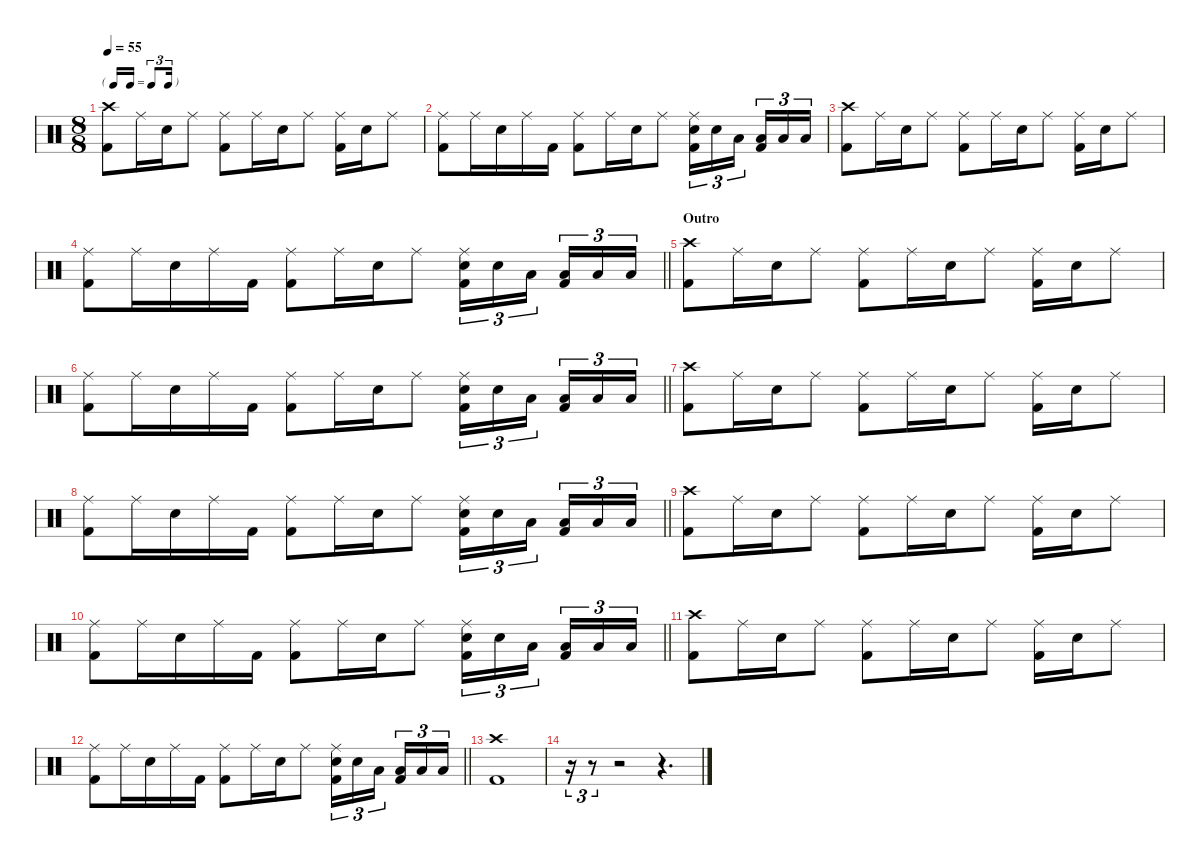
\defaultSystemsLayout 4
\hideDynamics
\bracketExtendMode nobrackets
\singleTrackTrackNamePolicy hidden
\multiTrackTrackNamePolicy hidden
\otherSystemsTrackNameOrientation horizontal
\track ("Phil Selway(drums)" "drm.") {instrument percussion}
\staff {score}
\articulation defaults
\ts (8 8)
\tf triplet16th
\tempo 55
\clef neutral
\ks c
("Crash high (hit)" "Kick (hit) 2").8{dy f beam Down} "Ride (middle)".16{beam Down} "Snare (hit) 2".16{beam Down} "Ride (middle)".8{beam Down} ("Ride (middle)" "Kick (hit) 2").8{beam Down} "Ride (middle)".16{beam Down} "Snare (hit) 2".16{beam Down} "Ride (middle)".8{beam Down} ("Ride (middle)" "Kick (hit) 2").16{beam Down} "Snare (hit) 2".16{beam Down} "Ride (middle)".8{beam Down} |
("Ride (middle)" "Kick (hit) 2").8{beam Down} "Ride (middle)".16{beam Down} "Snare (hit) 2".16{beam Down} "Ride (middle)".16{beam Down} "Kick (hit) 2".16{beam Down} ("Ride (middle)" "Kick (hit) 2").8{beam Down} "Ride (middle)".16{beam Down} "Snare (hit) 2".16{beam Down} "Ride (middle)".8{beam Down} ("Ride (middle)" "Snare (hit) 2" "Kick (hit) 2").16{tu (3 2) beam Down} "Snare (hit) 2".16{tu (3 2) beam Down} "Low Tom (hit)".16{tu (3 2) beam Down} ("Low Tom (hit)" "Kick (hit) 2").16{tu (3 2) beam Up} "Low Floor Tom (hit)".16{tu (3 2) beam Up} "Low Floor Tom (hit)".16{tu (3 2) beam Up} |
("Crash high (hit)" "Kick (hit) 2").8{beam Down} "Ride (middle)".16{beam Down} "Snare (hit) 2".16{beam Down} "Ride (middle)".8{beam Down} ("Ride (middle)" "Kick (hit) 2").8{beam Down} "Ride (middle)".16{beam Down} "Snare (hit) 2".16{beam Down} "Ride (middle)".8{beam Down} ("Ride (middle)" "Kick (hit) 2").16{beam Down} "Snare (hit) 2".16{beam Down} "Ride (middle)".8{beam Down} |
\barLineRight lightlight
("Ride (middle)" "Kick (hit) 2").8{beam Down} "Ride (middle)".16{beam Down} "Snare (hit) 2".16{beam Down} "Ride (middle)".16{beam Down} "Kick (hit) 2".16{beam Down} ("Ride (middle)" "Kick (hit) 2").8{beam Down} "Ride (middle)".16{beam Down} "Snare (hit) 2".16{beam Down} "Ride (middle)".8{beam Down} ("Ride (middle)" "Snare (hit) 2" "Kick (hit) 2").16{tu (3 2) beam Down} "Snare (hit) 2".16{tu (3 2) beam Down} "Low Tom (hit)".16{tu (3 2) beam Down} ("Low Tom (hit)" "Kick (hit) 2").16{tu (3 2) beam Up} "Low Floor Tom (hit)".16{tu (3 2) beam Up} "Low Floor Tom (hit)".16{tu (3 2) beam Up} |
\section ("" "Outro")
("Crash high (hit)" "Kick (hit) 2").8{beam Down} "Ride (middle)".16{beam Down} "Snare (hit) 2".16{beam Down} "Ride (middle)".8{beam Down} ("Ride (middle)" "Kick (hit) 2").8{beam Down} "Ride (middle)".16{beam Down} "Snare (hit) 2".16{beam Down} "Ride (middle)".8{beam Down} ("Ride (middle)" "Kick (hit) 2").16{beam Down} "Snare (hit) 2".16{beam Down} "Ride (middle)".8{beam Down} |
\barLineRight lightlight
("Ride (middle)" "Kick (hit) 2").8{beam Down} "Ride (middle)".16{beam Down} "Snare (hit) 2".16{beam Down} "Ride (middle)".16{beam Down} "Kick (hit) 2".16{beam Down} ("Ride (middle)" "Kick (hit) 2").8{beam Down} "Ride (middle)".16{beam Down} "Snare (hit) 2".16{beam Down} "Ride (middle)".8{beam Down} ("Ride (middle)" "Snare (hit) 2" "Kick (hit) 2").16{tu (3 2) beam Down} "Snare (hit) 2".16{tu (3 2) beam Down} "Low Tom (hit)".16{tu (3 2) beam Down} ("Low Tom (hit)" "Kick (hit) 2").16{tu (3 2) beam Up} "Low Floor Tom (hit)".16{tu (3 2) beam Up} "Low Floor Tom (hit)".16{tu (3 2) beam Up} |
("Crash high (hit)" "Kick (hit) 2").8{beam Down} "Ride (middle)".16{beam Down} "Snare (hit) 2".16{beam Down} "Ride (middle)".8{beam Down} ("Ride (middle)" "Kick (hit) 2").8{beam Down} "Ride (middle)".16{beam Down} "Snare (hit) 2".16{beam Down} "Ride (middle)".8{beam Down} ("Ride (middle)" "Kick (hit) 2").16{beam Down} "Snare (hit) 2".16{beam Down} "Ride (middle)".8{beam Down} |
\barLineRight lightlight
("Ride (middle)" "Kick (hit) 2").8{beam Down} "Ride (middle)".16{beam Down} "Snare (hit) 2".16{beam Down} "Ride (middle)".16{beam Down} "Kick (hit) 2".16{beam Down} ("Ride (middle)" "Kick (hit) 2").8{beam Down} "Ride (middle)".16{beam Down} "Snare (hit) 2".16{beam Down} "Ride (middle)".8{beam Down} ("Ride (middle)" "Snare (hit) 2" "Kick (hit) 2").16{tu (3 2) beam Down} "Snare (hit) 2".16{tu (3 2) beam Down} "Low Tom (hit)".16{tu (3 2) beam Down} ("Low Tom (hit)" "Kick (hit) 2").16{tu (3 2) beam Up} "Low Floor Tom (hit)".16{tu (3 2) beam Up} "Low Floor Tom (hit)".16{tu (3 2) beam Up} |
("Crash high (hit)" "Kick (hit) 2").8{beam Down} "Ride (middle)".16{beam Down} "Snare (hit) 2".16{beam Down} "Ride (middle)".8{beam Down} ("Ride (middle)" "Kick (hit) 2").8{beam Down} "Ride (middle)".16{beam Down} "Snare (hit) 2".16{beam Down} "Ride (middle)".8{beam Down} ("Ride (middle)" "Kick (hit) 2").16{beam Down} "Snare (hit) 2".16{beam Down} "Ride (middle)".8{beam Down} |
\barLineRight lightlight
("Ride (middle)" "Kick (hit) 2").8{beam Down} "Ride (middle)".16{beam Down} "Snare (hit) 2".16{beam Down} "Ride (middle)".16{beam Down} "Kick (hit) 2".16{beam Down} ("Ride (middle)" "Kick (hit) 2").8{beam Down} "Ride (middle)".16{beam Down} "Snare (hit) 2".16{beam Down} "Ride (middle)".8{beam Down} ("Ride (middle)" "Snare (hit) 2" "Kick (hit) 2").16{tu (3 2) beam Down} "Snare (hit) 2".16{tu (3 2) beam Down} "Low Tom (hit)".16{tu (3 2) beam Down} ("Low Tom (hit)" "Kick (hit) 2").16{tu (3 2) beam Up} "Low Floor Tom (hit)".16{tu (3 2) beam Up} "Low Floor Tom (hit)".16{tu (3 2) beam Up} |
("Crash high (hit)" "Kick (hit) 2").8{beam Down} "Ride (middle)".16{beam Down} "Snare (hit) 2".16{beam Down} "Ride (middle)".8{beam Down} ("Ride (middle)" "Kick (hit) 2").8{beam Down} "Ride (middle)".16{beam Down} "Snare (hit) 2".16{beam Down} "Ride (middle)".8{beam Down} ("Ride (middle)" "Kick (hit) 2").16{beam Down} "Snare (hit) 2".16{beam Down} "Ride (middle)".8{beam Down} |
\barLineRight lightlight
("Ride (middle)" "Kick (hit) 2").8{beam Down} "Ride (middle)".16{beam Down} "Snare (hit) 2".16{beam Down} "Ride (middle)".16{beam Down} "Kick (hit) 2".16{beam Down} ("Ride (middle)" "Kick (hit) 2").8{beam Down} "Ride (middle)".16{beam Down} "Snare (hit) 2".16{beam Down} "Ride (middle)".8{beam Down} ("Ride (middle)" "Snare (hit) 2" "Kick (hit) 2").16{tu (3 2) beam Down} "Snare (hit) 2".16{tu (3 2) beam Down} "Low Tom (hit)".16{tu (3 2) beam Down} ("Low Tom (hit)" "Kick (hit) 2").16{tu (3 2) beam Up} "Low Floor Tom (hit)".16{tu (3 2) beam Up} "Low Floor Tom (hit)".16{tu (3 2) beam Up} |
("Crash high (hit)" "Kick (hit) 2").1{dy mf beam Down} |
r.16{tu (3 2) beam Down} r.8{tu (3 2) beam Down} r.2{beam Down} r.4{d beam Down}
